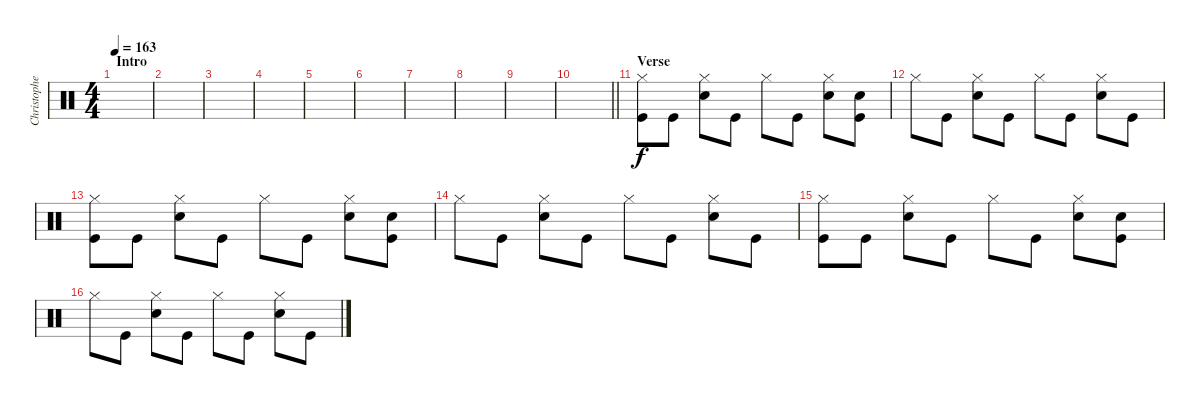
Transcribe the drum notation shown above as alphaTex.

\track ("Christopher - Drums" "Christophe") {instrument percussion}
\staff {score}
\articulation defaults
\ts (4 4)
\section ("" "Intro")
\tempo 163
\clef neutral
\ks c
|
|
|
|
|
|
|
|
|
\barLineRight lightlight
|
\section ("" "Verse")
("Hi-Hat (closed)" "Kick (hit)").8 "Kick (hit)".8 ("Hi-Hat (closed)" "Snare (hit) 2").8 "Kick (hit)".8 "Hi-Hat (closed)".8 "Kick (hit)".8 ("Hi-Hat (closed)" "Snare (hit) 2").8 ("Snare (hit) 2" "Kick (hit)").8 |
"Hi-Hat (closed)".8 "Kick (hit)".8 ("Hi-Hat (closed)" "Snare (hit) 2").8 "Kick (hit)".8 "Hi-Hat (closed)".8 "Kick (hit)".8 ("Hi-Hat (closed)" "Snare (hit) 2").8 "Kick (hit)".8 |
("Hi-Hat (closed)" "Kick (hit)").8 "Kick (hit)".8 ("Hi-Hat (closed)" "Snare (hit) 2").8 "Kick (hit)".8 "Hi-Hat (closed)".8 "Kick (hit)".8 ("Hi-Hat (closed)" "Snare (hit) 2").8 ("Snare (hit) 2" "Kick (hit)").8 |
"Hi-Hat (closed)".8 "Kick (hit)".8 ("Hi-Hat (closed)" "Snare (hit) 2").8 "Kick (hit)".8 "Hi-Hat (closed)".8 "Kick (hit)".8 ("Hi-Hat (closed)" "Snare (hit) 2").8 "Kick (hit)".8 |
("Hi-Hat (closed)" "Kick (hit)").8 "Kick (hit)".8 ("Hi-Hat (closed)" "Snare (hit) 2").8 "Kick (hit)".8 "Hi-Hat (closed)".8 "Kick (hit)".8 ("Hi-Hat (closed)" "Snare (hit) 2").8 ("Snare (hit) 2" "Kick (hit)").8 |
"Hi-Hat (closed)".8 "Kick (hit)".8 ("Hi-Hat (closed)" "Snare (hit) 2").8 "Kick (hit)".8 "Hi-Hat (closed)".8 "Kick (hit)".8 ("Hi-Hat (closed)" "Snare (hit) 2").8 "Kick (hit)".8
